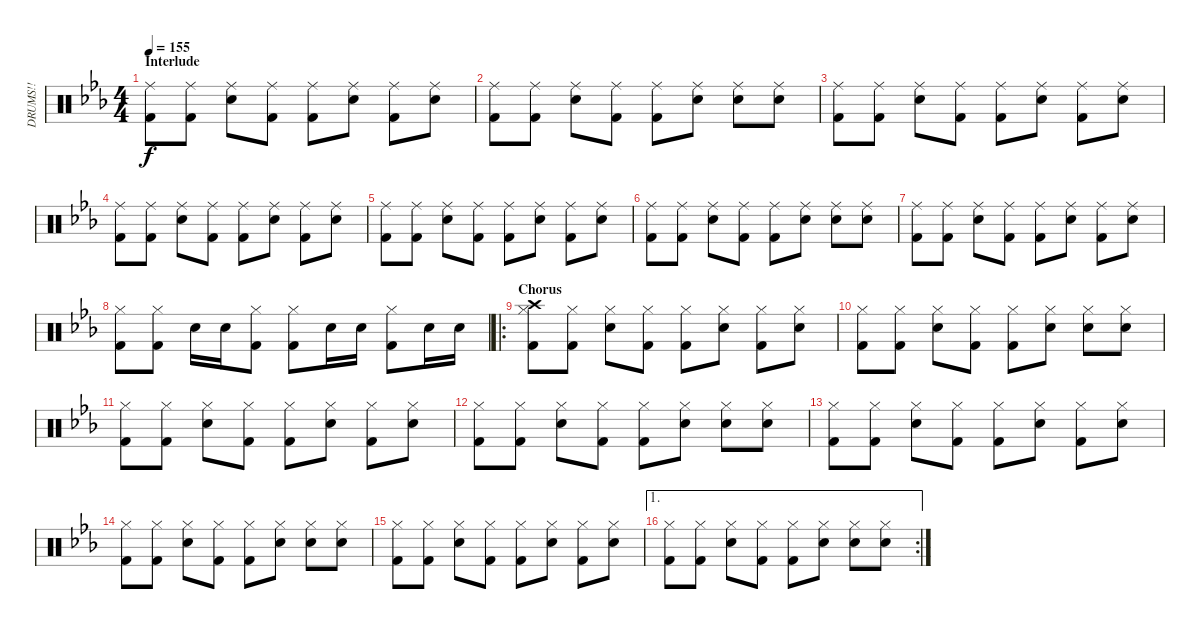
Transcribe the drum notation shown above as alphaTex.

\track ("DRUMS!!" "DRUMS!!") {instrument percussion}
\staff {score}
\articulation defaults
\ts (4 4)
\section ("" "Interlude")
\tempo 155
\clef neutral
\ks eb
("Ride (middle)" "Kick (hit) 2").8{dy f} ("Ride (middle)" "Kick (hit) 2").8 ("Ride (middle)" "Snare (hit) 2").8 ("Ride (middle)" "Kick (hit) 2").8 ("Ride (middle)" "Kick (hit) 2").8 ("Ride (middle)" "Snare (hit) 2").8 ("Ride (middle)" "Kick (hit) 2").8 ("Ride (middle)" "Snare (hit) 2").8 |
("Ride (middle)" "Kick (hit) 2").8 ("Ride (middle)" "Kick (hit) 2").8 ("Ride (middle)" "Snare (hit) 2").8 ("Ride (middle)" "Kick (hit) 2").8 ("Ride (middle)" "Kick (hit) 2").8 ("Ride (middle)" "Snare (hit) 2").8 ("Ride (middle)" "Snare (hit) 2").8 ("Ride (middle)" "Snare (hit) 2").8 |
("Ride (middle)" "Kick (hit) 2").8 ("Ride (middle)" "Kick (hit) 2").8 ("Ride (middle)" "Snare (hit) 2").8 ("Ride (middle)" "Kick (hit) 2").8 ("Ride (middle)" "Kick (hit) 2").8 ("Ride (middle)" "Snare (hit) 2").8 ("Ride (middle)" "Kick (hit) 2").8 ("Ride (middle)" "Snare (hit) 2").8 |
("Ride (middle)" "Kick (hit) 2").8 ("Ride (middle)" "Kick (hit) 2").8 ("Ride (middle)" "Snare (hit) 2").8 ("Ride (middle)" "Kick (hit) 2").8 ("Ride (middle)" "Kick (hit) 2").8 ("Ride (middle)" "Snare (hit) 2").8 ("Ride (middle)" "Kick (hit) 2").8 ("Ride (middle)" "Snare (hit) 2").8 |
("Ride (middle)" "Kick (hit) 2").8 ("Ride (middle)" "Kick (hit) 2").8 ("Ride (middle)" "Snare (hit) 2").8 ("Ride (middle)" "Kick (hit) 2").8 ("Ride (middle)" "Kick (hit) 2").8 ("Ride (middle)" "Snare (hit) 2").8 ("Ride (middle)" "Kick (hit) 2").8 ("Ride (middle)" "Snare (hit) 2").8 |
("Ride (middle)" "Kick (hit) 2").8 ("Ride (middle)" "Kick (hit) 2").8 ("Ride (middle)" "Snare (hit) 2").8 ("Ride (middle)" "Kick (hit) 2").8 ("Ride (middle)" "Kick (hit) 2").8 ("Ride (middle)" "Snare (hit) 2").8 ("Ride (middle)" "Snare (hit) 2").8 ("Ride (middle)" "Snare (hit) 2").8 |
("Ride (middle)" "Kick (hit) 2").8 ("Ride (middle)" "Kick (hit) 2").8 ("Ride (middle)" "Snare (hit) 2").8 ("Ride (middle)" "Kick (hit) 2").8 ("Ride (middle)" "Kick (hit) 2").8 ("Ride (middle)" "Snare (hit) 2").8 ("Ride (middle)" "Kick (hit) 2").8 ("Ride (middle)" "Snare (hit) 2").8 |
("Hi-Hat (closed)" "Kick (hit) 2").8 ("Hi-Hat (closed)" "Kick (hit) 2").8 "Snare (hit) 2".16 "Snare (hit) 2".16 ("Hi-Hat (closed)" "Kick (hit) 2").8 ("Hi-Hat (closed)" "Kick (hit) 2").8 "Snare (hit) 2".16 "Snare (hit) 2".16 ("Hi-Hat (closed)" "Kick (hit) 2").8 "Snare (hit) 2".16 "Snare (hit) 2".16 |
\ro
\section ("" "Chorus")
("Crash high (hit)" "Hi-Hat (closed)" "Kick (hit) 2").8 ("Hi-Hat (closed)" "Kick (hit) 2").8 ("Hi-Hat (closed)" "Snare (hit) 2").8 ("Hi-Hat (closed)" "Kick (hit) 2").8 ("Hi-Hat (closed)" "Kick (hit) 2").8 ("Hi-Hat (closed)" "Snare (hit) 2").8 ("Hi-Hat (closed)" "Kick (hit) 2").8 ("Hi-Hat (closed)" "Snare (hit) 2").8 |
("Hi-Hat (closed)" "Kick (hit) 2").8 ("Hi-Hat (closed)" "Kick (hit) 2").8 ("Hi-Hat (closed)" "Snare (hit) 2").8 ("Hi-Hat (closed)" "Kick (hit) 2").8 ("Hi-Hat (closed)" "Kick (hit) 2").8 ("Hi-Hat (closed)" "Snare (hit) 2").8 ("Hi-Hat (closed)" "Snare (hit) 2").8 ("Hi-Hat (closed)" "Snare (hit) 2").8 |
("Hi-Hat (closed)" "Kick (hit) 2").8 ("Hi-Hat (closed)" "Kick (hit) 2").8 ("Hi-Hat (closed)" "Snare (hit) 2").8 ("Hi-Hat (closed)" "Kick (hit) 2").8 ("Hi-Hat (closed)" "Kick (hit) 2").8 ("Hi-Hat (closed)" "Snare (hit) 2").8 ("Hi-Hat (closed)" "Kick (hit) 2").8 ("Hi-Hat (closed)" "Snare (hit) 2").8 |
("Hi-Hat (closed)" "Kick (hit) 2").8 ("Hi-Hat (closed)" "Kick (hit) 2").8 ("Hi-Hat (closed)" "Snare (hit) 2").8 ("Hi-Hat (closed)" "Kick (hit) 2").8 ("Hi-Hat (closed)" "Kick (hit) 2").8 ("Hi-Hat (closed)" "Snare (hit) 2").8 ("Hi-Hat (closed)" "Snare (hit) 2").8 ("Hi-Hat (closed)" "Snare (hit) 2").8 |
("Hi-Hat (closed)" "Kick (hit) 2").8 ("Hi-Hat (closed)" "Kick (hit) 2").8 ("Hi-Hat (closed)" "Snare (hit) 2").8 ("Hi-Hat (closed)" "Kick (hit) 2").8 ("Hi-Hat (closed)" "Kick (hit) 2").8 ("Hi-Hat (closed)" "Snare (hit) 2").8 ("Hi-Hat (closed)" "Kick (hit) 2").8 ("Hi-Hat (closed)" "Snare (hit) 2").8 |
("Hi-Hat (closed)" "Kick (hit) 2").8 ("Hi-Hat (closed)" "Kick (hit) 2").8 ("Hi-Hat (closed)" "Snare (hit) 2").8 ("Hi-Hat (closed)" "Kick (hit) 2").8 ("Hi-Hat (closed)" "Kick (hit) 2").8 ("Hi-Hat (closed)" "Snare (hit) 2").8 ("Hi-Hat (closed)" "Snare (hit) 2").8 ("Hi-Hat (closed)" "Snare (hit) 2").8 |
("Hi-Hat (closed)" "Kick (hit) 2").8 ("Hi-Hat (closed)" "Kick (hit) 2").8 ("Hi-Hat (closed)" "Snare (hit) 2").8 ("Hi-Hat (closed)" "Kick (hit) 2").8 ("Hi-Hat (closed)" "Kick (hit) 2").8 ("Hi-Hat (closed)" "Snare (hit) 2").8 ("Hi-Hat (closed)" "Kick (hit) 2").8 ("Hi-Hat (closed)" "Snare (hit) 2").8 |
\ae 1
\rc 2
("Hi-Hat (closed)" "Kick (hit) 2").8 ("Hi-Hat (closed)" "Kick (hit) 2").8 ("Hi-Hat (closed)" "Snare (hit) 2").8 ("Hi-Hat (closed)" "Kick (hit) 2").8 ("Hi-Hat (closed)" "Kick (hit) 2").8 ("Hi-Hat (closed)" "Snare (hit) 2").8 ("Hi-Hat (closed)" "Snare (hit) 2").8 ("Hi-Hat (closed)" "Snare (hit) 2").8
